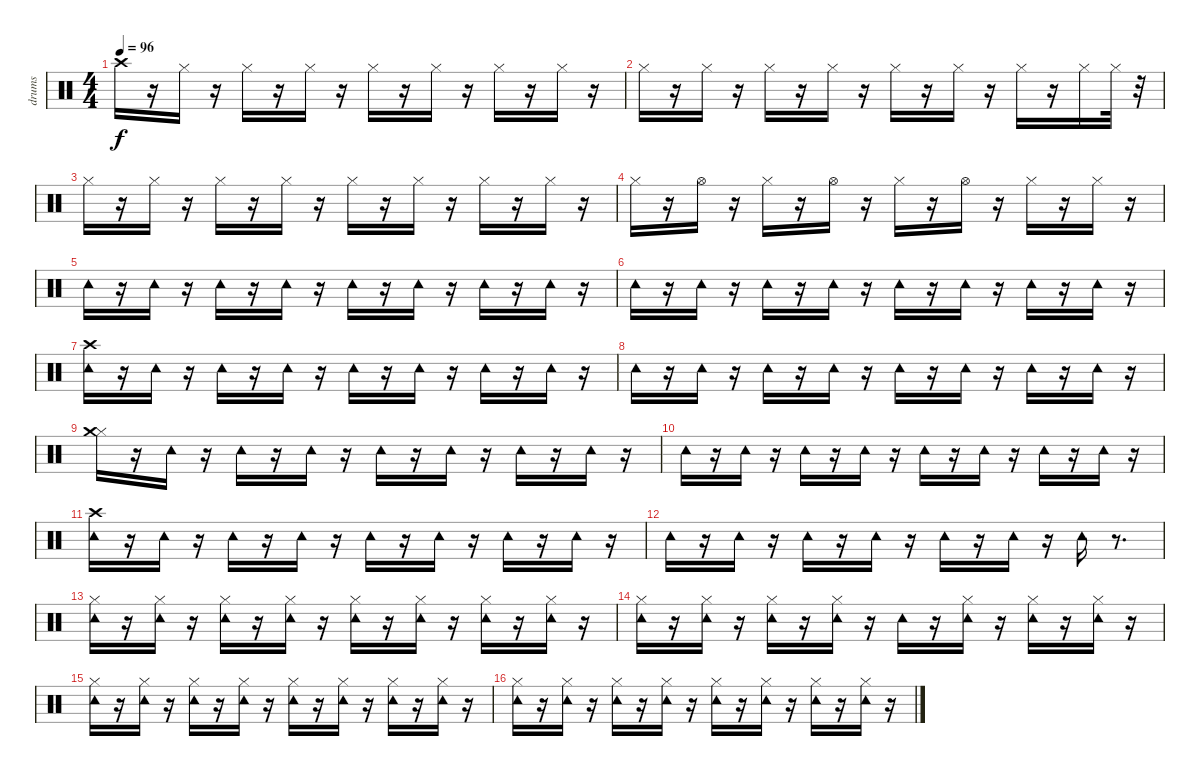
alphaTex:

\track ("drums" "drums") {instrument percussion}
\staff {score}
\articulation defaults
\ts (4 4)
\tempo 96
\clef neutral
\ks c "Crash high (hit)".16{dy f}
r.16 "Hi-Hat (closed)".16 r.16 "Hi-Hat (closed)".16 r.16 "Hi-Hat (closed)".16 r.16 "Hi-Hat (closed)".16 r.16 "Hi-Hat (closed)".16 r.16 "Hi-Hat (closed)".16 r.16 "Hi-Hat (closed)".16 r.16 |
"Hi-Hat (closed)".16 r.16 "Hi-Hat (closed)".16 r.16 "Hi-Hat (closed)".16 r.16 "Hi-Hat (closed)".16 r.16 "Hi-Hat (closed)".16 r.16 "Hi-Hat (closed)".16 r.16 "Hi-Hat (closed)".16 r.16 "Hi-Hat (closed)".16 "Hi-Hat (closed)".32 r.32 |
"Hi-Hat (closed)".16 r.16 "Hi-Hat (closed)".16 r.16 "Hi-Hat (closed)".16 r.16 "Hi-Hat (closed)".16 r.16 "Hi-Hat (closed)".16 r.16 "Hi-Hat (closed)".16 r.16 "Hi-Hat (closed)".16 r.16 "Hi-Hat (closed)".16 r.16 |
"Hi-Hat (closed)".16 r.16 "Hi-Hat (open)".16 r.16 "Hi-Hat (closed)".16 r.16 "Hi-Hat (open)".16 r.16 "Hi-Hat (closed)".16 r.16 "Hi-Hat (open)".16 r.16 "Hi-Hat (closed)".16 r.16 "Hi-Hat (closed)".16 r.16 |
"Tambourine (hit)".16 r.16 "Tambourine (hit)".16 r.16 "Tambourine (hit)".16 r.16 "Tambourine (hit)".16 r.16 "Tambourine (hit)".16 r.16 "Tambourine (hit)".16 r.16 "Tambourine (hit)".16 r.16 "Tambourine (hit)".16 r.16 |
"Tambourine (hit)".16 r.16 "Tambourine (hit)".16 r.16 "Tambourine (hit)".16 r.16 "Tambourine (hit)".16 r.16 "Tambourine (hit)".16 r.16 "Tambourine (hit)".16 r.16 "Tambourine (hit)".16 r.16 "Tambourine (hit)".16 r.16 |
("Tambourine (hit)" "Crash high (hit)").16 r.16 "Tambourine (hit)".16 r.16 "Tambourine (hit)".16 r.16 "Tambourine (hit)".16 r.16 "Tambourine (hit)".16 r.16 "Tambourine (hit)".16 r.16 "Tambourine (hit)".16 r.16 "Tambourine (hit)".16 r.16 |
"Tambourine (hit)".16 r.16 "Tambourine (hit)".16 r.16 "Tambourine (hit)".16 r.16 "Tambourine (hit)".16 r.16 "Tambourine (hit)".16 r.16 "Tambourine (hit)".16 r.16 "Tambourine (hit)".16 r.16 "Tambourine (hit)".16 r.16 |
("Hi-Hat (closed)" "Crash medium (hit)").16 r.16 "Tambourine (hit)".16 r.16 "Tambourine (hit)".16 r.16 "Tambourine (hit)".16 r.16 "Tambourine (hit)".16 r.16 "Tambourine (hit)".16 r.16 "Tambourine (hit)".16 r.16 "Tambourine (hit)".16 r.16 |
"Tambourine (hit)".16 r.16 "Tambourine (hit)".16 r.16 "Tambourine (hit)".16 r.16 "Tambourine (hit)".16 r.16 "Tambourine (hit)".16 r.16 "Tambourine (hit)".16 r.16 "Tambourine (hit)".16 r.16 "Tambourine (hit)".16 r.16 |
("Tambourine (hit)" "Crash high (hit)").16 r.16 "Tambourine (hit)".16 r.16 "Tambourine (hit)".16 r.16 "Tambourine (hit)".16 r.16 "Tambourine (hit)".16 r.16 "Tambourine (hit)".16 r.16 "Tambourine (hit)".16 r.16 "Tambourine (hit)".16 r.16 |
"Tambourine (hit)".16 r.16 "Tambourine (hit)".16 r.16 "Tambourine (hit)".16 r.16 "Tambourine (hit)".16 r.16 "Tambourine (hit)".16 r.16 "Tambourine (hit)".16 r.16 "Tambourine (hit)".16 r.8{d} |
("Tambourine (hit)" "Hi-Hat (closed)").16 r.16 ("Hi-Hat (closed)" "Tambourine (hit)").16 r.16 ("Hi-Hat (closed)" "Tambourine (hit)").16 r.16 ("Hi-Hat (closed)" "Tambourine (hit)").16 r.16 ("Hi-Hat (closed)" "Tambourine (hit)").16 r.16 ("Hi-Hat (closed)" "Tambourine (hit)").16 r.16 ("Hi-Hat (closed)" "Tambourine (hit)").16 r.16 ("Hi-Hat (closed)" "Tambourine (hit)").16 r.16 |
("Hi-Hat (closed)" "Tambourine (hit)").16 r.16 ("Hi-Hat (closed)" "Tambourine (hit)").16 r.16 ("Tambourine (hit)" "Hi-Hat (closed)").16 r.16 ("Tambourine (hit)" "Hi-Hat (closed)").16 r.16 "Tambourine (hit)".16 r.16 ("Hi-Hat (closed)" "Tambourine (hit)").16 r.16 ("Hi-Hat (closed)" "Tambourine (hit)").16 r.16 ("Hi-Hat (closed)" "Tambourine (hit)").16 r.16 |
("Tambourine (hit)" "Hi-Hat (closed)").16 r.16 ("Hi-Hat (closed)" "Tambourine (hit)").16 r.16 ("Hi-Hat (closed)" "Tambourine (hit)").16 r.16 ("Tambourine (hit)" "Hi-Hat (closed)").16 r.16 ("Tambourine (hit)" "Hi-Hat (closed)").16 r.16 ("Hi-Hat (closed)" "Tambourine (hit)").16 r.16 ("Tambourine (hit)" "Hi-Hat (closed)").16 r.16 ("Hi-Hat (closed)" "Tambourine (hit)").16 r.16 |
("Tambourine (hit)" "Hi-Hat (closed)").16 r.16 ("Hi-Hat (closed)" "Tambourine (hit)").16 r.16 ("Tambourine (hit)" "Hi-Hat (closed)").16 r.16 ("Tambourine (hit)" "Hi-Hat (closed)").16 r.16 ("Tambourine (hit)" "Hi-Hat (closed)").16 r.16 ("Hi-Hat (closed)" "Tambourine (hit)").16 r.16 ("Tambourine (hit)" "Hi-Hat (closed)").16 r.16 ("Hi-Hat (closed)" "Tambourine (hit)").16 r.16
